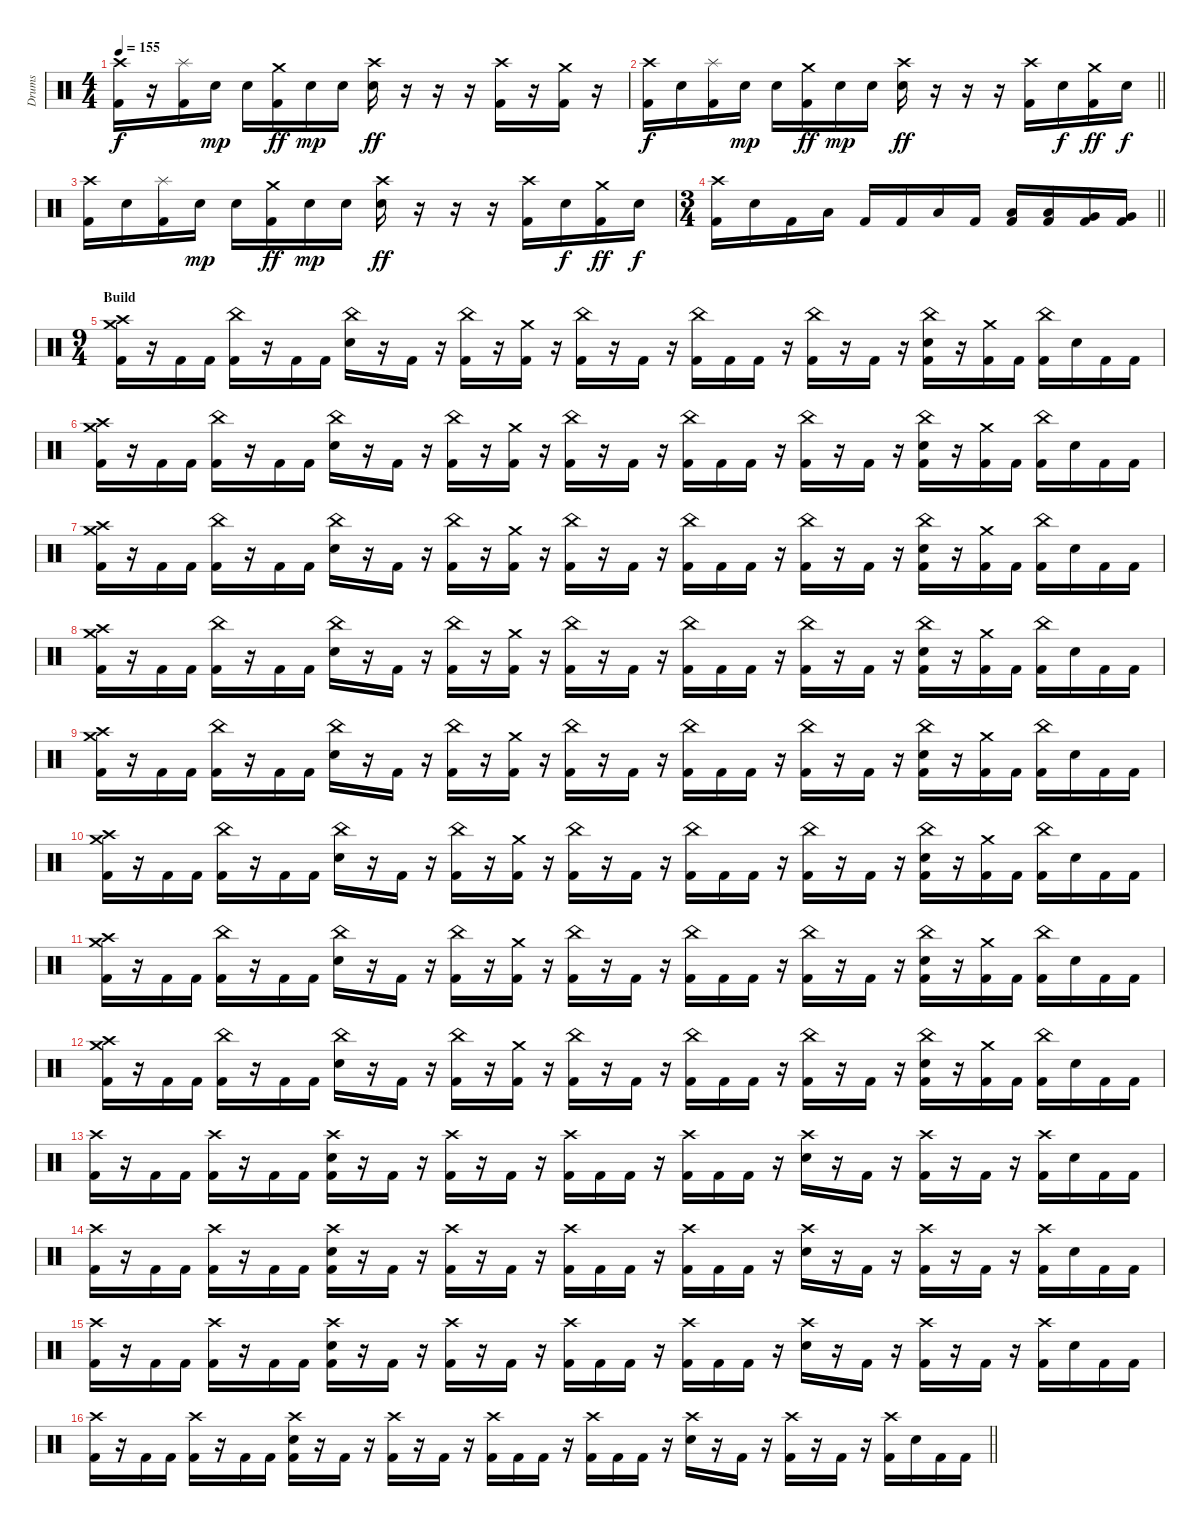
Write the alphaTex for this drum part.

\track ("Drums" "Drums") {instrument percussion}
\staff {score}
\articulation defaults
\ts (4 4)
\tempo 155
\clef neutral
\ks c
("Crash high (hit)" "Kick (hit) 2").16{dy f} r.16 ("Splash (hit)" "Kick (hit) 2").16 "Electric Snare (hit)".16{dy mp} "Electric Snare (hit)".16 ("Crash medium (hit)" "Kick (hit) 2").16{dy ff} "Electric Snare (hit)".16{dy mp} "Electric Snare (hit)".16 ("Crash high (hit)" "Electric Snare (hit)").16{dy ff} r.16 r.16 r.16 ("Crash high (hit)" "Kick (hit) 2").16 r.16 ("Crash medium (hit)" "Kick (hit) 2").16 r.16 |
\barLineRight lightlight
("Crash high (hit)" "Kick (hit) 2").16{dy f} "Electric Snare (hit)".16 ("Splash (hit)" "Kick (hit) 2").16 "Electric Snare (hit)".16{dy mp} "Electric Snare (hit)".16 ("Crash medium (hit)" "Kick (hit) 2").16{dy ff} "Electric Snare (hit)".16{dy mp} "Electric Snare (hit)".16 ("Crash high (hit)" "Electric Snare (hit)").16{dy ff} r.16 r.16 r.16 ("Crash high (hit)" "Kick (hit) 2").16 "Electric Snare (hit)".16{dy f} ("Crash medium (hit)" "Kick (hit) 2").16{dy ff} "Electric Snare (hit)".16{dy f} |
("Crash high (hit)" "Kick (hit) 2").16 "Electric Snare (hit)".16 ("Splash (hit)" "Kick (hit) 2").16 "Electric Snare (hit)".16{dy mp} "Electric Snare (hit)".16 ("Crash medium (hit)" "Kick (hit) 2").16{dy ff} "Electric Snare (hit)".16{dy mp} "Electric Snare (hit)".16 ("Crash high (hit)" "Electric Snare (hit)").16{dy ff} r.16 r.16 r.16 ("Crash high (hit)" "Kick (hit) 2").16 "Electric Snare (hit)".16{dy f} ("Crash medium (hit)" "Kick (hit) 2").16{dy ff} "Electric Snare (hit)".16{dy f} |
\ts (3 4)
\barLineRight lightlight
("Crash high (hit)" "Kick (hit) 2").16 "Electric Snare (hit)".16 "Kick (hit) 2".16 "Low Tom (hit)".16 "Kick (hit) 2".16 "Kick (hit) 2".16 "Low Tom (hit)".16 "Kick (hit) 2".16 ("Low Tom (hit)" "Kick (hit) 2").16 ("Low Tom (hit)" "Kick (hit) 2").16 ("Very Low Tom (hit)" "Kick (hit) 2").16 ("Very Low Tom (hit)" "Kick (hit) 2").16 |
\ts (9 4)
\section ("" "Build")
("Crash high (hit)" "Crash medium (hit)" "Kick (hit) 2").16 r.16 "Kick (hit) 2".16 "Kick (hit) 2".16 ("China (hit)" "Kick (hit) 2").16 r.16 "Kick (hit) 2".16 "Kick (hit) 2".16 ("China (hit)" "Electric Snare (hit)").16 r.16 "Kick (hit) 2".16 r.16 ("China (hit)" "Kick (hit) 2").16 r.16 ("Crash medium (hit)" "Kick (hit) 2").16 r.16 ("China (hit)" "Kick (hit) 2").16 r.16 "Kick (hit) 2".16 r.16 ("China (hit)" "Kick (hit) 2").16 "Kick (hit) 2".16 "Kick (hit) 2".16 r.16 ("China (hit)" "Kick (hit) 2").16 r.16 "Kick (hit) 2".16 r.16 ("China (hit)" "Electric Snare (hit)" "Kick (hit) 2").16 r.16 ("Crash medium (hit)" "Kick (hit) 2").16 "Kick (hit) 2".16 ("China (hit)" "Kick (hit) 2").16 "Electric Snare (hit)".16 "Kick (hit) 2".16 "Kick (hit) 2".16 |
("Crash high (hit)" "Crash medium (hit)" "Kick (hit) 2").16 r.16 "Kick (hit) 2".16 "Kick (hit) 2".16 ("China (hit)" "Kick (hit) 2").16 r.16 "Kick (hit) 2".16 "Kick (hit) 2".16 ("China (hit)" "Electric Snare (hit)").16 r.16 "Kick (hit) 2".16 r.16 ("China (hit)" "Kick (hit) 2").16 r.16 ("Crash medium (hit)" "Kick (hit) 2").16 r.16 ("China (hit)" "Kick (hit) 2").16 r.16 "Kick (hit) 2".16 r.16 ("China (hit)" "Kick (hit) 2").16 "Kick (hit) 2".16 "Kick (hit) 2".16 r.16 ("China (hit)" "Kick (hit) 2").16 r.16 "Kick (hit) 2".16 r.16 ("China (hit)" "Electric Snare (hit)" "Kick (hit) 2").16 r.16 ("Crash medium (hit)" "Kick (hit) 2").16 "Kick (hit) 2".16 ("China (hit)" "Kick (hit) 2").16 "Electric Snare (hit)".16 "Kick (hit) 2".16 "Kick (hit) 2".16 |
("Crash high (hit)" "Crash medium (hit)" "Kick (hit) 2").16 r.16 "Kick (hit) 2".16 "Kick (hit) 2".16 ("China (hit)" "Kick (hit) 2").16 r.16 "Kick (hit) 2".16 "Kick (hit) 2".16 ("China (hit)" "Electric Snare (hit)").16 r.16 "Kick (hit) 2".16 r.16 ("China (hit)" "Kick (hit) 2").16 r.16 ("Crash medium (hit)" "Kick (hit) 2").16 r.16 ("China (hit)" "Kick (hit) 2").16 r.16 "Kick (hit) 2".16 r.16 ("China (hit)" "Kick (hit) 2").16 "Kick (hit) 2".16 "Kick (hit) 2".16 r.16 ("China (hit)" "Kick (hit) 2").16 r.16 "Kick (hit) 2".16 r.16 ("China (hit)" "Electric Snare (hit)" "Kick (hit) 2").16 r.16 ("Crash medium (hit)" "Kick (hit) 2").16 "Kick (hit) 2".16 ("China (hit)" "Kick (hit) 2").16 "Electric Snare (hit)".16 "Kick (hit) 2".16 "Kick (hit) 2".16 |
("Crash high (hit)" "Crash medium (hit)" "Kick (hit) 2").16 r.16 "Kick (hit) 2".16 "Kick (hit) 2".16 ("China (hit)" "Kick (hit) 2").16 r.16 "Kick (hit) 2".16 "Kick (hit) 2".16 ("China (hit)" "Electric Snare (hit)").16 r.16 "Kick (hit) 2".16 r.16 ("China (hit)" "Kick (hit) 2").16 r.16 ("Crash medium (hit)" "Kick (hit) 2").16 r.16 ("China (hit)" "Kick (hit) 2").16 r.16 "Kick (hit) 2".16 r.16 ("China (hit)" "Kick (hit) 2").16 "Kick (hit) 2".16 "Kick (hit) 2".16 r.16 ("China (hit)" "Kick (hit) 2").16 r.16 "Kick (hit) 2".16 r.16 ("China (hit)" "Electric Snare (hit)" "Kick (hit) 2").16 r.16 ("Crash medium (hit)" "Kick (hit) 2").16 "Kick (hit) 2".16 ("China (hit)" "Kick (hit) 2").16 "Electric Snare (hit)".16 "Kick (hit) 2".16 "Kick (hit) 2".16 |
("Crash high (hit)" "Crash medium (hit)" "Kick (hit) 2").16 r.16 "Kick (hit) 2".16 "Kick (hit) 2".16 ("China (hit)" "Kick (hit) 2").16 r.16 "Kick (hit) 2".16 "Kick (hit) 2".16 ("China (hit)" "Electric Snare (hit)").16 r.16 "Kick (hit) 2".16 r.16 ("China (hit)" "Kick (hit) 2").16 r.16 ("Crash medium (hit)" "Kick (hit) 2").16 r.16 ("China (hit)" "Kick (hit) 2").16 r.16 "Kick (hit) 2".16 r.16 ("China (hit)" "Kick (hit) 2").16 "Kick (hit) 2".16 "Kick (hit) 2".16 r.16 ("China (hit)" "Kick (hit) 2").16 r.16 "Kick (hit) 2".16 r.16 ("China (hit)" "Electric Snare (hit)" "Kick (hit) 2").16 r.16 ("Crash medium (hit)" "Kick (hit) 2").16 "Kick (hit) 2".16 ("China (hit)" "Kick (hit) 2").16 "Electric Snare (hit)".16 "Kick (hit) 2".16 "Kick (hit) 2".16 |
("Crash high (hit)" "Crash medium (hit)" "Kick (hit) 2").16 r.16 "Kick (hit) 2".16 "Kick (hit) 2".16 ("China (hit)" "Kick (hit) 2").16 r.16 "Kick (hit) 2".16 "Kick (hit) 2".16 ("China (hit)" "Electric Snare (hit)").16 r.16 "Kick (hit) 2".16 r.16 ("China (hit)" "Kick (hit) 2").16 r.16 ("Crash medium (hit)" "Kick (hit) 2").16 r.16 ("China (hit)" "Kick (hit) 2").16 r.16 "Kick (hit) 2".16 r.16 ("China (hit)" "Kick (hit) 2").16 "Kick (hit) 2".16 "Kick (hit) 2".16 r.16 ("China (hit)" "Kick (hit) 2").16 r.16 "Kick (hit) 2".16 r.16 ("China (hit)" "Electric Snare (hit)" "Kick (hit) 2").16 r.16 ("Crash medium (hit)" "Kick (hit) 2").16 "Kick (hit) 2".16 ("China (hit)" "Kick (hit) 2").16 "Electric Snare (hit)".16 "Kick (hit) 2".16 "Kick (hit) 2".16 |
("Crash high (hit)" "Crash medium (hit)" "Kick (hit) 2").16 r.16 "Kick (hit) 2".16 "Kick (hit) 2".16 ("China (hit)" "Kick (hit) 2").16 r.16 "Kick (hit) 2".16 "Kick (hit) 2".16 ("China (hit)" "Electric Snare (hit)").16 r.16 "Kick (hit) 2".16 r.16 ("China (hit)" "Kick (hit) 2").16 r.16 ("Crash medium (hit)" "Kick (hit) 2").16 r.16 ("China (hit)" "Kick (hit) 2").16 r.16 "Kick (hit) 2".16 r.16 ("China (hit)" "Kick (hit) 2").16 "Kick (hit) 2".16 "Kick (hit) 2".16 r.16 ("China (hit)" "Kick (hit) 2").16 r.16 "Kick (hit) 2".16 r.16 ("China (hit)" "Electric Snare (hit)" "Kick (hit) 2").16 r.16 ("Crash medium (hit)" "Kick (hit) 2").16 "Kick (hit) 2".16 ("China (hit)" "Kick (hit) 2").16 "Electric Snare (hit)".16 "Kick (hit) 2".16 "Kick (hit) 2".16 |
("Crash high (hit)" "Crash medium (hit)" "Kick (hit) 2").16 r.16 "Kick (hit) 2".16 "Kick (hit) 2".16 ("China (hit)" "Kick (hit) 2").16 r.16 "Kick (hit) 2".16 "Kick (hit) 2".16 ("China (hit)" "Electric Snare (hit)").16 r.16 "Kick (hit) 2".16 r.16 ("China (hit)" "Kick (hit) 2").16 r.16 ("Crash medium (hit)" "Kick (hit) 2").16 r.16 ("China (hit)" "Kick (hit) 2").16 r.16 "Kick (hit) 2".16 r.16 ("China (hit)" "Kick (hit) 2").16 "Kick (hit) 2".16 "Kick (hit) 2".16 r.16 ("China (hit)" "Kick (hit) 2").16 r.16 "Kick (hit) 2".16 r.16 ("China (hit)" "Electric Snare (hit)" "Kick (hit) 2").16 r.16 ("Crash medium (hit)" "Kick (hit) 2").16 "Kick (hit) 2".16 ("China (hit)" "Kick (hit) 2").16 "Electric Snare (hit)".16 "Kick (hit) 2".16 "Kick (hit) 2".16 |
("Crash high (hit)" "Kick (hit) 2").16 r.16 "Kick (hit) 2".16 "Kick (hit) 2".16 ("Crash high (hit)" "Kick (hit) 2").16 r.16 "Kick (hit) 2".16 "Kick (hit) 2".16 ("Crash high (hit)" "Electric Snare (hit)" "Kick (hit) 2").16 r.16 "Kick (hit) 2".16 r.16 ("Crash high (hit)" "Kick (hit) 2").16 r.16 "Kick (hit) 2".16 r.16 ("Crash high (hit)" "Kick (hit) 2").16 "Kick (hit) 2".16 "Kick (hit) 2".16 r.16 ("Crash high (hit)" "Kick (hit) 2").16 "Kick (hit) 2".16 "Kick (hit) 2".16 r.16 ("Crash high (hit)" "Electric Snare (hit)").16 r.16 "Kick (hit) 2".16 r.16 ("Crash high (hit)" "Kick (hit) 2").16 r.16 "Kick (hit) 2".16 r.16 ("Crash high (hit)" "Kick (hit) 2").16 "Electric Snare (hit)".16 "Kick (hit) 2".16 "Kick (hit) 2".16 |
("Crash high (hit)" "Kick (hit) 2").16 r.16 "Kick (hit) 2".16 "Kick (hit) 2".16 ("Crash high (hit)" "Kick (hit) 2").16 r.16 "Kick (hit) 2".16 "Kick (hit) 2".16 ("Crash high (hit)" "Electric Snare (hit)" "Kick (hit) 2").16 r.16 "Kick (hit) 2".16 r.16 ("Crash high (hit)" "Kick (hit) 2").16 r.16 "Kick (hit) 2".16 r.16 ("Crash high (hit)" "Kick (hit) 2").16 "Kick (hit) 2".16 "Kick (hit) 2".16 r.16 ("Crash high (hit)" "Kick (hit) 2").16 "Kick (hit) 2".16 "Kick (hit) 2".16 r.16 ("Crash high (hit)" "Electric Snare (hit)").16 r.16 "Kick (hit) 2".16 r.16 ("Crash high (hit)" "Kick (hit) 2").16 r.16 "Kick (hit) 2".16 r.16 ("Crash high (hit)" "Kick (hit) 2").16 "Electric Snare (hit)".16 "Kick (hit) 2".16 "Kick (hit) 2".16 |
("Crash high (hit)" "Kick (hit) 2").16 r.16 "Kick (hit) 2".16 "Kick (hit) 2".16 ("Crash high (hit)" "Kick (hit) 2").16 r.16 "Kick (hit) 2".16 "Kick (hit) 2".16 ("Crash high (hit)" "Electric Snare (hit)" "Kick (hit) 2").16 r.16 "Kick (hit) 2".16 r.16 ("Crash high (hit)" "Kick (hit) 2").16 r.16 "Kick (hit) 2".16 r.16 ("Crash high (hit)" "Kick (hit) 2").16 "Kick (hit) 2".16 "Kick (hit) 2".16 r.16 ("Crash high (hit)" "Kick (hit) 2").16 "Kick (hit) 2".16 "Kick (hit) 2".16 r.16 ("Crash high (hit)" "Electric Snare (hit)").16 r.16 "Kick (hit) 2".16 r.16 ("Crash high (hit)" "Kick (hit) 2").16 r.16 "Kick (hit) 2".16 r.16 ("Crash high (hit)" "Kick (hit) 2").16 "Electric Snare (hit)".16 "Kick (hit) 2".16 "Kick (hit) 2".16 |
\barLineRight lightlight
("Crash high (hit)" "Kick (hit) 2").16 r.16 "Kick (hit) 2".16 "Kick (hit) 2".16 ("Crash high (hit)" "Kick (hit) 2").16 r.16 "Kick (hit) 2".16 "Kick (hit) 2".16 ("Crash high (hit)" "Electric Snare (hit)" "Kick (hit) 2").16 r.16 "Kick (hit) 2".16 r.16 ("Crash high (hit)" "Kick (hit) 2").16 r.16 "Kick (hit) 2".16 r.16 ("Crash high (hit)" "Kick (hit) 2").16 "Kick (hit) 2".16 "Kick (hit) 2".16 r.16 ("Crash high (hit)" "Kick (hit) 2").16 "Kick (hit) 2".16 "Kick (hit) 2".16 r.16 ("Crash high (hit)" "Electric Snare (hit)").16 r.16 "Kick (hit) 2".16 r.16 ("Crash high (hit)" "Kick (hit) 2").16 r.16 "Kick (hit) 2".16 r.16 ("Crash high (hit)" "Kick (hit) 2").16 "Electric Snare (hit)".16 "Kick (hit) 2".16 "Kick (hit) 2".16
